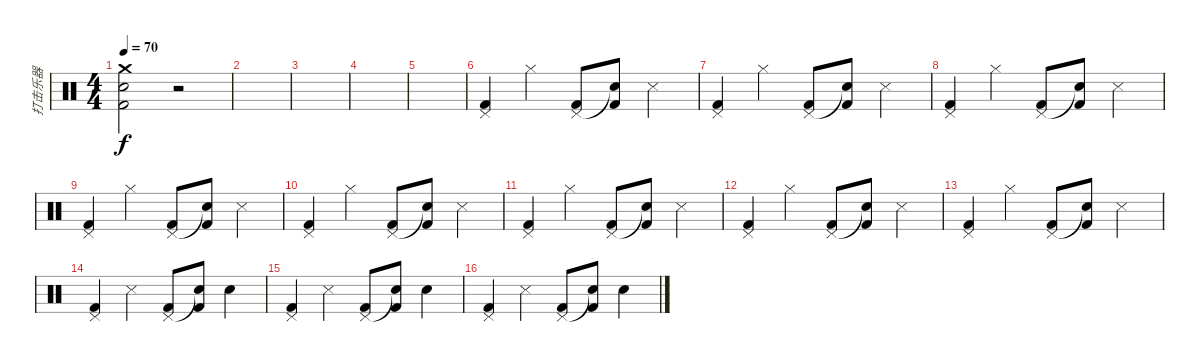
\track ("打击乐器" "打击乐器") {instrument percussion}
\staff {score}
\articulation defaults
\ts (4 4)
\tempo 70
\clef neutral
\ks c
("Crash medium (hit)" "Electric Snare (hit)" "Kick (hit) 2").2{dy f} r.2 |
|
|
|
|
("Pedal Hi-Hat (hit)" "Kick (hit) 2").4 "Hi-Hat (closed)".4 ("Pedal Hi-Hat (hit)" "Kick (hit) 2").8 ("Snare (hit)"{t} "Kick (hit) 2").8 "Snare (side stick) 3".4 |
("Pedal Hi-Hat (hit)" "Kick (hit) 2").4 "Hi-Hat (closed)".4 ("Pedal Hi-Hat (hit)" "Kick (hit) 2").8 ("Snare (hit)"{t} "Kick (hit) 2").8 "Snare (side stick) 3".4 |
("Pedal Hi-Hat (hit)" "Kick (hit) 2").4 "Hi-Hat (closed)".4 ("Pedal Hi-Hat (hit)" "Kick (hit) 2").8 ("Snare (hit)"{t} "Kick (hit) 2").8 "Snare (side stick) 3".4 |
("Pedal Hi-Hat (hit)" "Kick (hit) 2").4 "Hi-Hat (closed)".4 ("Pedal Hi-Hat (hit)" "Kick (hit) 2").8 ("Snare (hit)"{t} "Kick (hit) 2").8 "Snare (side stick) 3".4 |
("Pedal Hi-Hat (hit)" "Kick (hit) 2").4 "Hi-Hat (closed)".4 ("Pedal Hi-Hat (hit)" "Kick (hit) 2").8 ("Snare (hit)"{t} "Kick (hit) 2").8 "Snare (side stick) 3".4 |
("Pedal Hi-Hat (hit)" "Kick (hit) 2").4 "Hi-Hat (closed)".4 ("Pedal Hi-Hat (hit)" "Kick (hit) 2").8 ("Snare (hit)"{t} "Kick (hit) 2").8 "Snare (side stick) 3".4 |
("Pedal Hi-Hat (hit)" "Kick (hit) 2").4 "Hi-Hat (closed)".4 ("Pedal Hi-Hat (hit)" "Kick (hit) 2").8 ("Snare (hit)"{t} "Kick (hit) 2").8 "Snare (side stick) 3".4 |
("Pedal Hi-Hat (hit)" "Kick (hit) 2").4 "Hi-Hat (closed)".4 ("Pedal Hi-Hat (hit)" "Kick (hit) 2").8 ("Snare (hit)"{t} "Kick (hit) 2").8 "Snare (side stick) 3".4 |
("Pedal Hi-Hat (hit)" "Kick (hit) 2").4 "Snare (side stick) 3".4 ("Pedal Hi-Hat (hit)" "Kick (hit) 2").8 ("Snare (hit)"{t} "Kick (hit) 2").8 "Electric Snare (hit)".4 |
("Pedal Hi-Hat (hit)" "Kick (hit) 2").4 "Snare (side stick) 3".4 ("Pedal Hi-Hat (hit)" "Kick (hit) 2").8 ("Snare (hit)"{t} "Kick (hit) 2").8 "Electric Snare (hit)".4 |
("Pedal Hi-Hat (hit)" "Kick (hit) 2").4 "Snare (side stick) 3".4 ("Pedal Hi-Hat (hit)" "Kick (hit) 2").8 ("Snare (hit)"{t} "Kick (hit) 2").8 "Electric Snare (hit)".4
